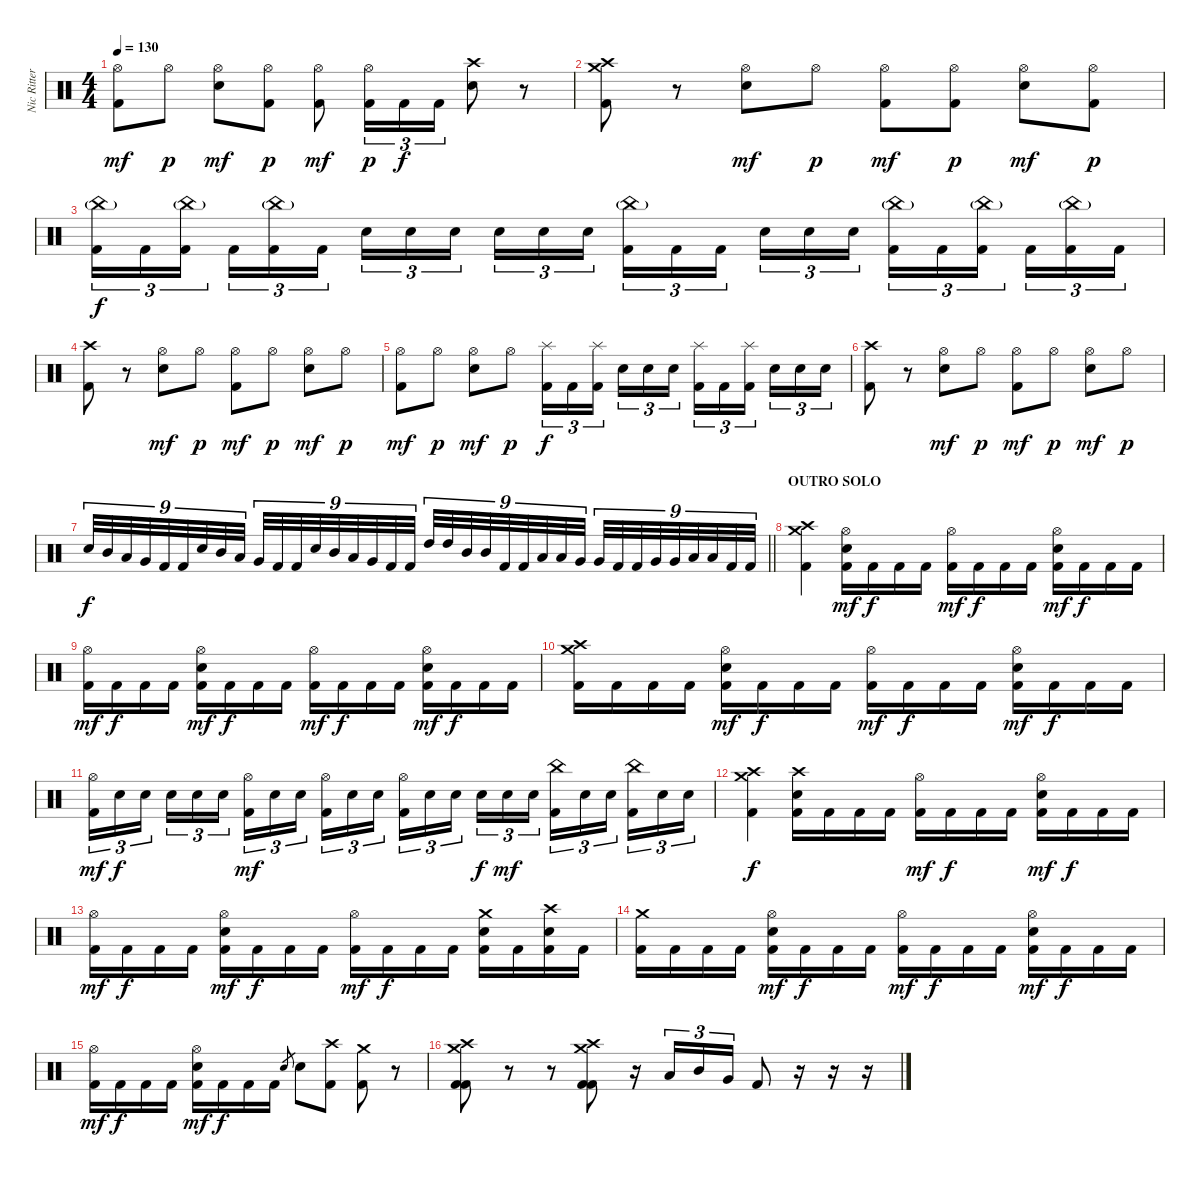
\track ("Nic Ritter" "Nic Ritter") {instrument percussion}
\staff {score}
\articulation defaults
\ts (4 4)
\tempo 130
\clef neutral
\ks c
("Hi-Hat (open)" "Kick (hit) 2").8{dy mf} "Hi-Hat (open)".8{dy p} ("Hi-Hat (open)" "Electric Snare (hit)").8{dy mf} ("Hi-Hat (open)" "Kick (hit) 2").8{dy p} ("Hi-Hat (open)" "Kick (hit) 2").8{dy mf} ("Hi-Hat (open)" "Kick (hit) 2").16{tu (3 2) dy p} "Kick (hit) 2".16{tu (3 2) dy f} "Kick (hit) 2".16{tu (3 2)} ("Crash high (hit)" "Electric Snare (hit)").8 r.8 |
("Crash medium (hit)" "Crash high (hit)" "Kick (hit) 2").8 r.8 ("Hi-Hat (open)" "Electric Snare (hit)").8{dy mf} "Hi-Hat (open)".8{dy p} ("Hi-Hat (open)" "Kick (hit) 2").8{dy mf} ("Hi-Hat (open)" "Kick (hit) 2").8{dy p} ("Hi-Hat (open)" "Electric Snare (hit)").8{dy mf} ("Hi-Hat (open)" "Kick (hit) 2").8{dy p} |
("China (hit)"{g} "Kick (hit) 2").16{tu (3 2) dy f} "Kick (hit) 2".16{tu (3 2)} ("China (hit)"{g} "Kick (hit) 2").16{tu (3 2) beam splitsecondary} "Kick (hit) 2".16{tu (3 2)} ("China (hit)"{g} "Kick (hit) 2").16{tu (3 2)} "Kick (hit) 2".16{tu (3 2)} "Electric Snare (hit)".16{tu (3 2)} "Electric Snare (hit)".16{tu (3 2)} "Electric Snare (hit)".16{tu (3 2) beam splitsecondary} "Electric Snare (hit)".16{tu (3 2)} "Electric Snare (hit)".16{tu (3 2)} "Electric Snare (hit)".16{tu (3 2)} ("China (hit)"{g} "Kick (hit) 2").16{tu (3 2)} "Kick (hit) 2".16{tu (3 2)} "Kick (hit) 2".16{tu (3 2) beam splitsecondary} "Electric Snare (hit)".16{tu (3 2)} "Electric Snare (hit)".16{tu (3 2)} "Electric Snare (hit)".16{tu (3 2)} ("China (hit)"{g} "Kick (hit) 2").16{tu (3 2)} "Kick (hit) 2".16{tu (3 2)} ("China (hit)"{g} "Kick (hit) 2").16{tu (3 2) beam splitsecondary} "Kick (hit) 2".16{tu (3 2)} ("China (hit)"{g} "Kick (hit) 2").16{tu (3 2)} "Kick (hit) 2".16{tu (3 2)} |
("Crash high (hit)" "Kick (hit) 2").8 r.8 ("Hi-Hat (open)" "Electric Snare (hit)").8{dy mf} "Hi-Hat (open)".8{dy p} ("Hi-Hat (open)" "Kick (hit) 2").8{dy mf} "Hi-Hat (open)".8{dy p} ("Hi-Hat (open)" "Electric Snare (hit)").8{dy mf} "Hi-Hat (open)".8{dy p} |
("Hi-Hat (open)" "Kick (hit) 2").8{dy mf} "Hi-Hat (open)".8{dy p} ("Hi-Hat (open)" "Electric Snare (hit)").8{dy mf} "Hi-Hat (open)".8{dy p} ("Splash (hit)" "Kick (hit) 2").16{tu (3 2) dy f} "Kick (hit) 2".16{tu (3 2)} ("Splash (hit)" "Kick (hit) 2").16{tu (3 2) beam splitsecondary} "Electric Snare (hit)".16{tu (3 2)} "Electric Snare (hit)".16{tu (3 2)} "Electric Snare (hit)".16{tu (3 2)} ("Splash (hit)" "Kick (hit) 2").16{tu (3 2)} "Kick (hit) 2".16{tu (3 2)} ("Splash (hit)" "Kick (hit) 2").16{tu (3 2) beam splitsecondary} "Electric Snare (hit)".16{tu (3 2)} "Electric Snare (hit)".16{tu (3 2)} "Electric Snare (hit)".16{tu (3 2)} |
("Crash high (hit)" "Kick (hit) 2").8 r.8 ("Hi-Hat (open)" "Electric Snare (hit)").8{dy mf} "Hi-Hat (open)".8{dy p} ("Hi-Hat (open)" "Kick (hit) 2").8{dy mf} "Hi-Hat (open)".8{dy p} ("Hi-Hat (open)" "Electric Snare (hit)").8{dy mf} "Hi-Hat (open)".8{dy p} |
\barLineRight lightlight "Electric Snare (hit)".32{tu (9 8) dy f} "Mid Tom (hit)".32{tu (9 8)} "Low Tom (hit)".32{tu (9 8)} "Very Low Tom (hit)".32{tu (9 8)} "Kick (hit) 2".32{tu (9 8)} "Kick (hit) 2".32{tu (9 8)} "Electric Snare (hit)".32{tu (9 8)} "Mid Tom (hit)".32{tu (9 8)} "Low Tom (hit)".32{tu (9 8)} "Very Low Tom (hit)".32{tu (9 8)} "Kick (hit) 2".32{tu (9 8)} "Kick (hit) 2".32{tu (9 8)} "Electric Snare (hit)".32{tu (9 8)} "Mid Tom (hit)".32{tu (9 8)} "Low Tom (hit)".32{tu (9 8)} "Very Low Tom (hit)".32{tu (9 8)} "Kick (hit) 2".32{tu (9 8)} "Kick (hit) 2".32{tu (9 8)} "High Tom (hit)".32{tu (9 8)} "High Tom (hit)".32{tu (9 8)} "Mid Tom (hit)".32{tu (9 8)} "Mid Tom (hit)".32{tu (9 8)} "Kick (hit) 2".32{tu (9 8)} "Kick (hit) 2".32{tu (9 8)} "Low Tom (hit)".32{tu (9 8)} "Low Tom (hit)".32{tu (9 8)} "Very Low Tom (hit)".32{tu (9 8)} "Very Low Tom (hit)".32{tu (9 8)} "Kick (hit) 2".32{tu (9 8)} "Kick (hit) 2".32{tu (9 8)} "Very Low Tom (hit)".32{tu (9 8)} "Very Low Tom (hit)".32{tu (9 8)} "Low Floor Tom (hit)".32{tu (9 8)} "Low Floor Tom (hit)".32{tu (9 8)} "Kick (hit) 2".32{tu (9 8)} "Kick (hit) 2".32{tu (9 8)}
|
\section ("" "OUTRO SOLO")
("Crash medium (hit)" "Crash high (hit)" "Kick (hit) 2").4 ("Hi-Hat (open)" "Electric Snare (hit)" "Kick (hit) 2").16{dy mf} "Kick (hit) 2".16{dy f} "Kick (hit) 2".16 "Kick (hit) 2".16 ("Hi-Hat (open)" "Kick (hit) 2").16{dy mf} "Kick (hit) 2".16{dy f} "Kick (hit) 2".16 "Kick (hit) 2".16 ("Hi-Hat (open)" "Electric Snare (hit)" "Kick (hit) 2").16{dy mf} "Kick (hit) 2".16{dy f} "Kick (hit) 2".16 "Kick (hit) 2".16 |
("Hi-Hat (open)" "Kick (hit) 2").16{dy mf} "Kick (hit) 2".16{dy f} "Kick (hit) 2".16 "Kick (hit) 2".16 ("Hi-Hat (open)" "Electric Snare (hit)" "Kick (hit) 2").16{dy mf} "Kick (hit) 2".16{dy f} "Kick (hit) 2".16 "Kick (hit) 2".16 ("Hi-Hat (open)" "Kick (hit) 2").16{dy mf} "Kick (hit) 2".16{dy f} "Kick (hit) 2".16 "Kick (hit) 2".16 ("Hi-Hat (open)" "Electric Snare (hit)" "Kick (hit) 2").16{dy mf} "Kick (hit) 2".16{dy f} "Kick (hit) 2".16 "Kick (hit) 2".16 |
("Crash medium (hit)" "Crash high (hit)" "Kick (hit) 2").16 "Kick (hit) 2".16 "Kick (hit) 2".16 "Kick (hit) 2".16 ("Hi-Hat (open)" "Electric Snare (hit)" "Kick (hit) 2").16{dy mf} "Kick (hit) 2".16{dy f} "Kick (hit) 2".16 "Kick (hit) 2".16 ("Hi-Hat (open)" "Kick (hit) 2").16{dy mf} "Kick (hit) 2".16{dy f} "Kick (hit) 2".16 "Kick (hit) 2".16 ("Hi-Hat (open)" "Electric Snare (hit)" "Kick (hit) 2").16{dy mf} "Kick (hit) 2".16{dy f} "Kick (hit) 2".16 "Kick (hit) 2".16 |
("Hi-Hat (open)" "Kick (hit) 2").16{tu (3 2) dy mf} "Electric Snare (hit)".16{tu (3 2) dy f} "Electric Snare (hit)".16{tu (3 2) beam splitsecondary} "Electric Snare (hit)".16{tu (3 2)} "Electric Snare (hit)".16{tu (3 2)} "Electric Snare (hit)".16{tu (3 2)} ("Hi-Hat (open)" "Kick (hit) 2").16{tu (3 2) dy mf} "Electric Snare (hit)".16{tu (3 2)} "Electric Snare (hit)".16{tu (3 2) beam splitsecondary} ("Hi-Hat (open)" "Kick (hit) 2").16{tu (3 2)} "Electric Snare (hit)".16{tu (3 2)} "Electric Snare (hit)".16{tu (3 2)} ("Hi-Hat (open)" "Kick (hit) 2").16{tu (3 2)} "Electric Snare (hit)".16{tu (3 2)} "Electric Snare (hit)".16{tu (3 2) beam splitsecondary} "Electric Snare (hit)".16{tu (3 2) dy f} "Electric Snare (hit)".16{tu (3 2) dy mf} "Electric Snare (hit)".16{tu (3 2)} ("China (hit)" "Kick (hit) 2").16{tu (3 2)} "Electric Snare (hit)".16{tu (3 2)} "Electric Snare (hit)".16{tu (3 2) beam splitsecondary} ("China (hit)" "Kick (hit) 2").16{tu (3 2)} "Electric Snare (hit)".16{tu (3 2)} "Electric Snare (hit)".16{tu (3 2)} |
("Crash medium (hit)" "Crash high (hit)" "Kick (hit) 2").4{dy f} ("Crash high (hit)" "Electric Snare (hit)" "Kick (hit) 2").16 "Kick (hit) 2".16 "Kick (hit) 2".16 "Kick (hit) 2".16 ("Hi-Hat (open)" "Kick (hit) 2").16{dy mf} "Kick (hit) 2".16{dy f} "Kick (hit) 2".16 "Kick (hit) 2".16 ("Hi-Hat (open)" "Electric Snare (hit)" "Kick (hit) 2").16{dy mf} "Kick (hit) 2".16{dy f} "Kick (hit) 2".16 "Kick (hit) 2".16 |
("Hi-Hat (open)" "Kick (hit) 2").16{dy mf} "Kick (hit) 2".16{dy f} "Kick (hit) 2".16 "Kick (hit) 2".16 ("Hi-Hat (open)" "Electric Snare (hit)" "Kick (hit) 2").16{dy mf} "Kick (hit) 2".16{dy f} "Kick (hit) 2".16 "Kick (hit) 2".16 ("Hi-Hat (open)" "Kick (hit) 2").16{dy mf} "Kick (hit) 2".16{dy f} "Kick (hit) 2".16 "Kick (hit) 2".16 ("Crash medium (hit)" "Electric Snare (hit)" "Kick (hit) 2").16 "Kick (hit) 2".16 ("Crash high (hit)" "Electric Snare (hit)" "Kick (hit) 2").16 "Kick (hit) 2".16 |
("Crash medium (hit)" "Kick (hit) 2").16 "Kick (hit) 2".16 "Kick (hit) 2".16 "Kick (hit) 2".16 ("Hi-Hat (open)" "Electric Snare (hit)" "Kick (hit) 2").16{dy mf} "Kick (hit) 2".16{dy f} "Kick (hit) 2".16 "Kick (hit) 2".16 ("Hi-Hat (open)" "Kick (hit) 2").16{dy mf} "Kick (hit) 2".16{dy f} "Kick (hit) 2".16 "Kick (hit) 2".16 ("Hi-Hat (open)" "Electric Snare (hit)" "Kick (hit) 2").16{dy mf} "Kick (hit) 2".16{dy f} "Kick (hit) 2".16 "Kick (hit) 2".16 |
("Hi-Hat (open)" "Kick (hit) 2").16{dy mf} "Kick (hit) 2".16{dy f} "Kick (hit) 2".16 "Kick (hit) 2".16 ("Hi-Hat (open)" "Electric Snare (hit)" "Kick (hit) 2").16{dy mf} "Kick (hit) 2".16{dy f} "Kick (hit) 2".16 "Kick (hit) 2".16 "Electric Snare (hit)".8{gr} "Electric Snare (hit)".8 ("Crash high (hit)" "Kick (hit) 2").8 ("Crash medium (hit)" "Kick (hit) 2").8 r.8 |
("Crash medium (hit)" "Crash high (hit)" "Kick (hit) 2" "Kick (hit) 2").8 r.8 r.8 ("Crash medium (hit)" "Crash high (hit)" "Kick (hit) 2" "Kick (hit) 2").8 r.16 "Low Tom (hit)".16{tu (3 2)} "Mid Tom (hit)".16{tu (3 2)} "Very Low Tom (hit)".16{tu (3 2)} "Kick (hit) 2".8 r.16 r.16 r.16
